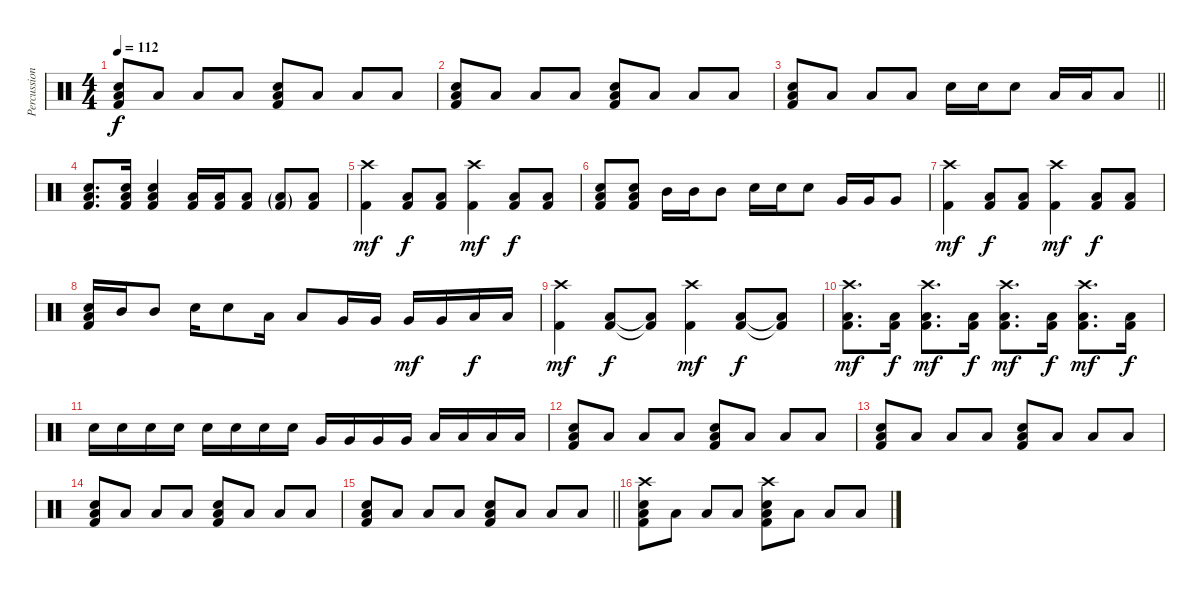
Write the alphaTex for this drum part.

\track ("Percussion" "Percussion") {instrument percussion}
\staff {score}
\articulation defaults
\ts (4 4)
\tempo 112
\clef neutral
\ks c
("Snare (hit) 2" "Low Floor Tom (hit)" "Kick (hit) 2").8{dy f} "Low Floor Tom (hit)".8 "Low Floor Tom (hit)".8 "Low Floor Tom (hit)".8 ("Snare (hit) 2" "Low Floor Tom (hit)" "Kick (hit) 2").8 "Low Floor Tom (hit)".8 "Low Floor Tom (hit)".8 "Low Floor Tom (hit)".8 |
("Snare (hit) 2" "Low Floor Tom (hit)" "Kick (hit) 2").8 "Low Floor Tom (hit)".8 "Low Floor Tom (hit)".8 "Low Floor Tom (hit)".8 ("Snare (hit) 2" "Low Floor Tom (hit)" "Kick (hit) 2").8 "Low Floor Tom (hit)".8 "Low Floor Tom (hit)".8 "Low Floor Tom (hit)".8 |
\barLineRight lightlight
("Snare (hit) 2" "Low Floor Tom (hit)" "Kick (hit) 2").8 "Low Floor Tom (hit)".8 "Low Floor Tom (hit)".8 "Low Floor Tom (hit)".8 "Snare (hit) 2".16 "Snare (hit) 2".16 "Snare (hit) 2".8 "Low Tom (hit)".16 "Low Tom (hit)".16 "Low Tom (hit)".8 |
("Snare (hit) 2" "Low Floor Tom (hit)" "Kick (hit) 2").8{d} ("Snare (hit) 2" "Low Floor Tom (hit)" "Kick (hit) 2").16 ("Snare (hit) 2" "Low Floor Tom (hit)" "Kick (hit) 2").4 ("Low Floor Tom (hit)" "Kick (hit) 2").16 ("Low Floor Tom (hit)" "Kick (hit) 2").16 ("Low Floor Tom (hit)" "Kick (hit) 2").8 ("Low Floor Tom (hit)"{g} "Kick (hit) 2"{g}).8 ("Low Floor Tom (hit)" "Kick (hit) 2").8 |
("Crash high (hit)" "Kick (hit) 2").4{dy mf} ("Low Floor Tom (hit)" "Kick (hit) 2").8{dy f} ("Low Floor Tom (hit)" "Kick (hit) 2").8 ("Crash high (hit)" "Kick (hit) 2").4{dy mf} ("Low Floor Tom (hit)" "Kick (hit) 2").8{dy f} ("Low Floor Tom (hit)" "Kick (hit) 2").8 |
("Low Floor Tom (hit)" "Snare (hit) 2" "Kick (hit) 2").8 ("Low Floor Tom (hit)" "Snare (hit) 2" "Kick (hit) 2").8 "Mid Tom (hit)".16 "Mid Tom (hit)".16 "Mid Tom (hit)".8 "Snare (hit) 2".16 "Snare (hit) 2".16 "Snare (hit) 2".8 "Very Low Tom (hit)".16 "Very Low Tom (hit)".16 "Very Low Tom (hit)".8 |
("Crash high (hit)" "Kick (hit) 2").4{dy mf} ("Low Floor Tom (hit)" "Kick (hit) 2").8{dy f} ("Low Floor Tom (hit)" "Kick (hit) 2").8 ("Crash high (hit)" "Kick (hit) 2").4{dy mf} ("Low Floor Tom (hit)" "Kick (hit) 2").8{dy f} ("Low Floor Tom (hit)" "Kick (hit) 2").8 |
("Snare (hit) 2" "Low Floor Tom (hit)" "Kick (hit) 2").16 "Mid Tom (hit)".16 "Mid Tom (hit)".8 "Snare (hit) 2".16 "Snare (hit) 2".8 "Low Tom (hit)".16 "Low Tom (hit)".8 "Very Low Tom (hit)".16 "Very Low Tom (hit)".16 "Very Low Tom (hit)".16{dy mf} "Very Low Tom (hit)".16 "Low Floor Tom (hit)".16{dy f} "Low Floor Tom (hit)".16 |
("Crash high (hit)" "Kick (hit) 2").4{dy mf} ("Low Floor Tom (hit)" "Kick (hit) 2").8{dy f} ("Low Floor Tom (hit)"{t} "Kick (hit) 2"{t}).8 ("Crash high (hit)" "Kick (hit) 2").4{dy mf} ("Low Floor Tom (hit)" "Kick (hit) 2").8{dy f} ("Low Floor Tom (hit)"{t} "Kick (hit) 2"{t}).8 |
("Crash high (hit)" "Low Floor Tom (hit)" "Kick (hit) 2").8{d dy mf} ("Low Floor Tom (hit)" "Kick (hit) 2").16{dy f} ("Crash high (hit)" "Low Floor Tom (hit)" "Kick (hit) 2").8{d dy mf} ("Low Floor Tom (hit)" "Kick (hit) 2").16{dy f} ("Crash high (hit)" "Low Floor Tom (hit)" "Kick (hit) 2").8{d dy mf} ("Low Floor Tom (hit)" "Kick (hit) 2").16{dy f} ("Crash high (hit)" "Low Floor Tom (hit)" "Kick (hit) 2").8{d dy mf} ("Low Floor Tom (hit)" "Kick (hit) 2").16{dy f} |
"Snare (hit) 2".16 "Snare (hit) 2".16 "Snare (hit) 2".16 "Snare (hit) 2".16 "Snare (hit) 2".16 "Snare (hit) 2".16 "Snare (hit) 2".16 "Snare (hit) 2".16 "Very Low Tom (hit)".16 "Very Low Tom (hit)".16 "Very Low Tom (hit)".16 "Very Low Tom (hit)".16 "Low Floor Tom (hit)".16 "Low Floor Tom (hit)".16 "Low Floor Tom (hit)".16 "Low Floor Tom (hit)".16 |
("Snare (hit) 2" "Low Floor Tom (hit)" "Kick (hit) 2").8 "Low Floor Tom (hit)".8 "Low Floor Tom (hit)".8 "Low Floor Tom (hit)".8 ("Snare (hit) 2" "Low Floor Tom (hit)" "Kick (hit) 2").8 "Low Floor Tom (hit)".8 "Low Floor Tom (hit)".8 "Low Floor Tom (hit)".8 |
("Snare (hit) 2" "Low Floor Tom (hit)" "Kick (hit) 2").8 "Low Floor Tom (hit)".8 "Low Floor Tom (hit)".8 "Low Floor Tom (hit)".8 ("Snare (hit) 2" "Low Floor Tom (hit)" "Kick (hit) 2").8 "Low Floor Tom (hit)".8 "Low Floor Tom (hit)".8 "Low Floor Tom (hit)".8 |
("Snare (hit) 2" "Low Floor Tom (hit)" "Kick (hit) 2").8 "Low Floor Tom (hit)".8 "Low Floor Tom (hit)".8 "Low Floor Tom (hit)".8 ("Snare (hit) 2" "Low Floor Tom (hit)" "Kick (hit) 2").8 "Low Floor Tom (hit)".8 "Low Floor Tom (hit)".8 "Low Floor Tom (hit)".8 |
\barLineRight lightlight
("Snare (hit) 2" "Low Floor Tom (hit)" "Kick (hit) 2").8 "Low Floor Tom (hit)".8 "Low Floor Tom (hit)".8 "Low Floor Tom (hit)".8 ("Snare (hit) 2" "Low Floor Tom (hit)" "Kick (hit) 2").8 "Low Floor Tom (hit)".8 "Low Floor Tom (hit)".8 "Low Floor Tom (hit)".8 |
("Snare (hit) 2" "Low Floor Tom (hit)" "Kick (hit) 2" "Crash high (hit)").8 "Low Floor Tom (hit)".8 "Low Floor Tom (hit)".8 "Low Floor Tom (hit)".8 ("Snare (hit) 2" "Low Floor Tom (hit)" "Kick (hit) 2" "Crash high (hit)").8 "Low Floor Tom (hit)".8 "Low Floor Tom (hit)".8 "Low Floor Tom (hit)".8
